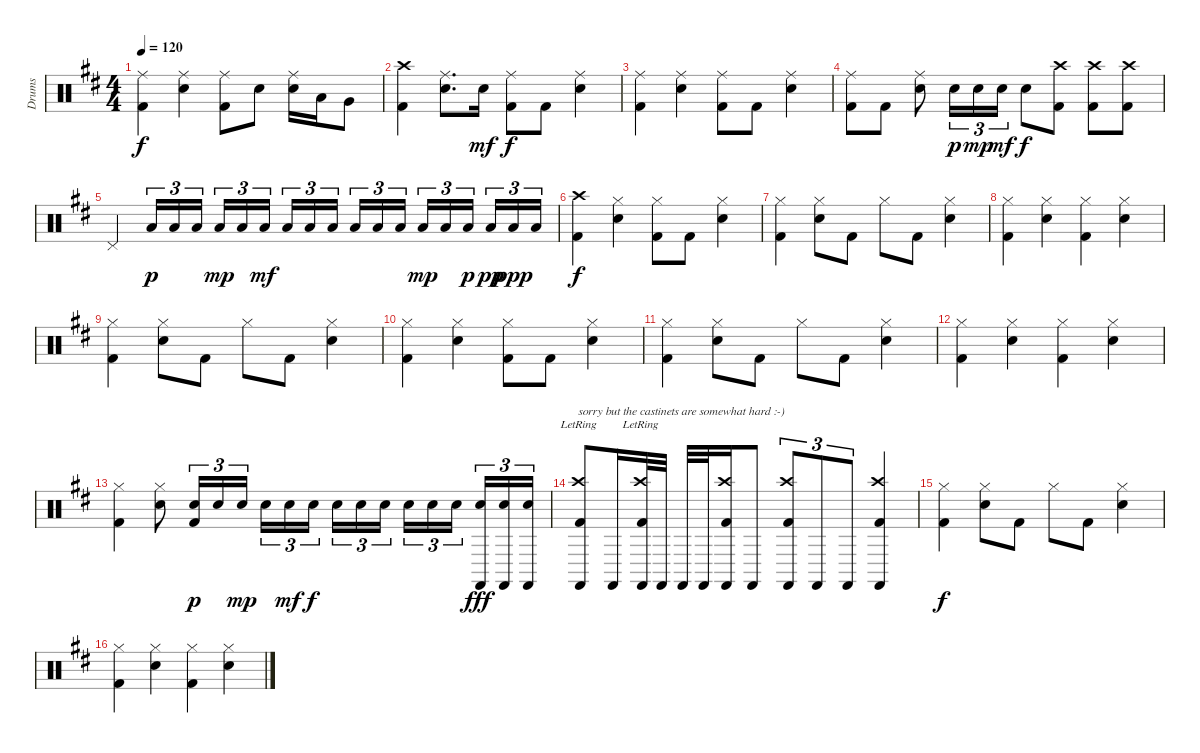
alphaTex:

\track ("Drums" "Drums") {instrument percussion}
\staff {score}
\articulation defaults
\ts (4 4)
\tempo 120
\clef neutral
\ks bminor
("Ride (middle)" "Kick (hit) 2").4{dy f} ("Ride (middle)" "Electric Snare (hit)").4 ("Ride (middle)" "Kick (hit) 2").8 "Electric Snare (hit)".8 ("Ride (middle)" "Electric Snare (hit)").16 "Low Tom (hit)".16 "Very Low Tom (hit)".8 |
("Crash high (hit)" "Kick (hit) 2").4 ("Ride (middle)" "Electric Snare (hit)").8{d} "Electric Snare (hit)".16{dy mf} ("Ride (middle)" "Kick (hit) 2").8{dy f} "Kick (hit) 2".8 ("Ride (middle)" "Electric Snare (hit)").4 |
("Ride (middle)" "Kick (hit) 2").4 ("Ride (middle)" "Electric Snare (hit)").4 ("Ride (middle)" "Kick (hit) 2").8 "Kick (hit) 2".8 ("Ride (middle)" "Electric Snare (hit)").4 |
("Ride (middle)" "Kick (hit) 2").8 "Kick (hit) 2".8 ("Ride (middle)" "Electric Snare (hit)").8 "Electric Snare (hit)".16{tu (3 2) dy p} "Electric Snare (hit)".16{tu (3 2) dy mp} "Electric Snare (hit)".16{tu (3 2) dy mf} "Electric Snare (hit)".8{dy f} ("Crash high (hit)" "Kick (hit) 2").8 ("Crash high (hit)" "Kick (hit) 2").8 ("Crash high (hit)" "Kick (hit) 2").8 |
"Pedal Hi-Hat (hit)".4 "Low Tom (hit)".16{tu (3 2) dy p} "Low Tom (hit)".16{tu (3 2)} "Low Tom (hit)".16{tu (3 2) beam splitsecondary} "Low Tom (hit)".16{tu (3 2) dy mp} "Low Tom (hit)".16{tu (3 2)} "Low Tom (hit)".16{tu (3 2) dy mf} "Low Tom (hit)".16{tu (3 2)} "Low Tom (hit)".16{tu (3 2)} "Low Tom (hit)".16{tu (3 2) beam splitsecondary} "Low Tom (hit)".16{tu (3 2)} "Low Tom (hit)".16{tu (3 2)} "Low Tom (hit)".16{tu (3 2)} "Low Tom (hit)".16{tu (3 2) dy mp} "Low Tom (hit)".16{tu (3 2)} "Low Tom (hit)".16{tu (3 2) dy p beam splitsecondary} "Low Tom (hit)".16{tu (3 2) dy pp} "Low Tom (hit)".16{tu (3 2) dy ppp} "Low Tom (hit)".16{tu (3 2)} |
("Crash high (hit)" "Kick (hit) 2").4{dy f} ("Hi-Hat (closed)" "Electric Snare (hit)").4 ("Hi-Hat (closed)" "Kick (hit) 2").8 "Kick (hit) 2".8 ("Hi-Hat (closed)" "Electric Snare (hit)").4 |
("Hi-Hat (closed)" "Kick (hit) 2").4 ("Hi-Hat (closed)" "Electric Snare (hit)").8 "Kick (hit) 2".8 "Hi-Hat (closed)".8 "Kick (hit) 2".8 ("Hi-Hat (closed)" "Electric Snare (hit)").4 |
("Hi-Hat (closed)" "Kick (hit) 2").4 ("Hi-Hat (closed)" "Electric Snare (hit)").4 ("Hi-Hat (closed)" "Kick (hit) 2").4 ("Hi-Hat (closed)" "Electric Snare (hit)").4 |
("Hi-Hat (closed)" "Kick (hit) 2").4 ("Hi-Hat (closed)" "Electric Snare (hit)").8 "Kick (hit) 2".8 "Hi-Hat (closed)".8 "Kick (hit) 2".8 ("Hi-Hat (closed)" "Electric Snare (hit)").4 |
("Hi-Hat (closed)" "Kick (hit) 2").4 ("Hi-Hat (closed)" "Electric Snare (hit)").4 ("Hi-Hat (closed)" "Kick (hit) 2").8 "Kick (hit) 2".8 ("Hi-Hat (closed)" "Electric Snare (hit)").4 |
("Hi-Hat (closed)" "Kick (hit) 2").4 ("Hi-Hat (closed)" "Electric Snare (hit)").8 "Kick (hit) 2".8 "Hi-Hat (closed)".8 "Kick (hit) 2".8 ("Hi-Hat (closed)" "Electric Snare (hit)").4 |
("Hi-Hat (closed)" "Kick (hit) 2").4 ("Hi-Hat (closed)" "Electric Snare (hit)").4 ("Hi-Hat (closed)" "Kick (hit) 2").4 ("Hi-Hat (closed)" "Electric Snare (hit)").4 |
("Hi-Hat (closed)" "Kick (hit) 2").4 ("Hi-Hat (closed)" "Electric Snare (hit)").8 ("Electric Snare (hit)" "Kick (hit) 2").16{tu (3 2) dy p} "Electric Snare (hit)".16{tu (3 2)} "Electric Snare (hit)".16{tu (3 2) dy mp} "Electric Snare (hit)".16{tu (3 2)} "Electric Snare (hit)".16{tu (3 2) dy mf} "Electric Snare (hit)".16{tu (3 2) dy f beam splitsecondary} "Electric Snare (hit)".16{tu (3 2)} "Electric Snare (hit)".16{tu (3 2)} "Electric Snare (hit)".16{tu (3 2)} "Electric Snare (hit)".16{tu (3 2)} "Electric Snare (hit)".16{tu (3 2)} "Electric Snare (hit)".16{tu (3 2) beam splitsecondary} ("Castanets (hit)" "Electric Snare (hit)").16{tu (3 2) dy fff} ("Castanets (hit)" "Electric Snare (hit)").16{tu (3 2)} ("Castanets (hit)" "Electric Snare (hit)").16{tu (3 2)} |
("Crash high (hit)"{lr} "Castanets (hit)" "Kick (hit) 2"{lr}).8{txt "sorry but the castinets are somewhat hard :-)"} "Castanets (hit)".16 ("Crash high (hit)"{lr} "Castanets (hit)" "Kick (hit) 2"{lr}).32 "Castanets (hit)".32 "Castanets (hit)".32 "Castanets (hit)".32 ("Crash high (hit)" "Castanets (hit)" "Kick (hit) 2").16 "Castanets (hit)".8 ("Crash high (hit)" "Castanets (hit)" "Kick (hit) 2").8{tu (3 2)} "Castanets (hit)".8{tu (3 2)} "Castanets (hit)".8{tu (3 2)} ("Crash high (hit)" "Castanets (hit)" "Kick (hit) 2").4 |
("Hi-Hat (closed)" "Kick (hit) 2").4{dy f} ("Hi-Hat (closed)" "Electric Snare (hit)").8 "Kick (hit) 2".8 "Hi-Hat (closed)".8 "Kick (hit) 2".8 ("Hi-Hat (closed)" "Electric Snare (hit)").4 |
("Hi-Hat (closed)" "Kick (hit) 2").4 ("Hi-Hat (closed)" "Electric Snare (hit)").4 ("Hi-Hat (closed)" "Kick (hit) 2").4 ("Hi-Hat (closed)" "Electric Snare (hit)").4
